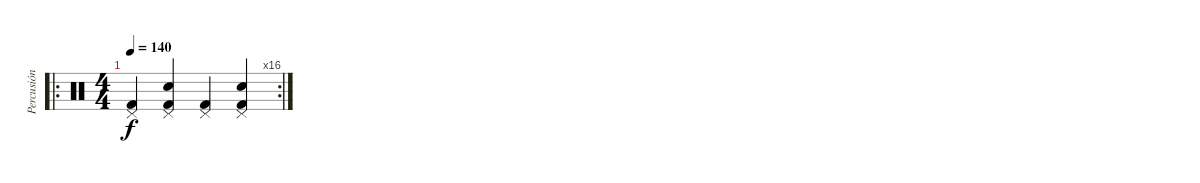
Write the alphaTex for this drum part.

\track ("Percusión" "Percusión") {instrument percussion}
\staff {score}
\articulation defaults
\ro
\rc 16
\ts (4 4)
\tempo 140
\clef neutral
\ks c
("Pedal Hi-Hat (hit)" "Kick (hit) 2").4{dy f} ("Pedal Hi-Hat (hit)" "Electric Snare (hit)" "Kick (hit) 2").4 ("Pedal Hi-Hat (hit)" "Kick (hit) 2").4 ("Pedal Hi-Hat (hit)" "Electric Snare (hit)" "Kick (hit) 2").4
